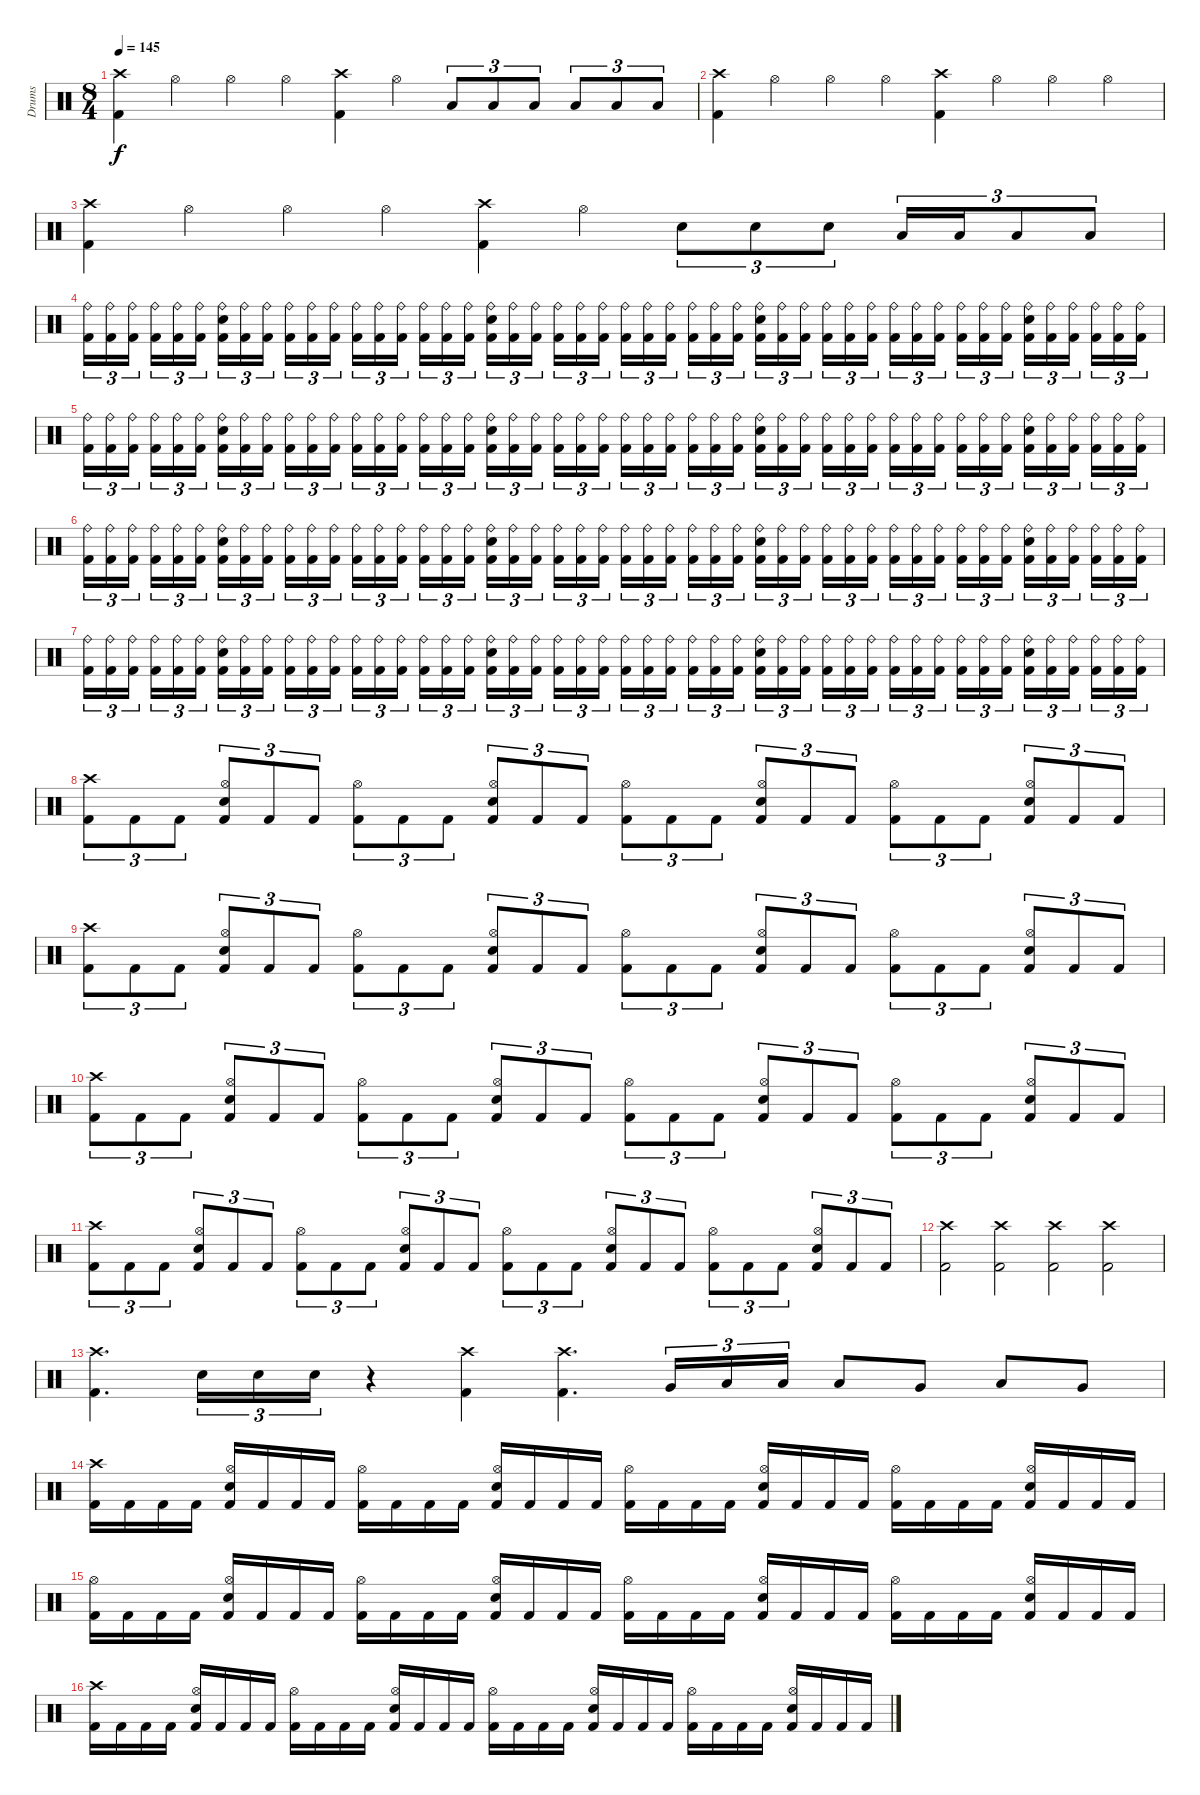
\track ("Drums" "Drums") {instrument percussion}
\staff {score}
\articulation defaults
\ts (8 4)
\tempo 145
\clef neutral
\ks c
("Crash high (hit)" "Kick (hit) 2").4{dy f} "Hi-Hat (open)".4 "Hi-Hat (open)".4 "Hi-Hat (open)".4 ("Crash high (hit)" "Kick (hit) 2").4 "Hi-Hat (open)".4 "Low Tom (hit)".8{tu (3 2)} "Low Tom (hit)".8{tu (3 2)} "Low Tom (hit)".8{tu (3 2)} "Low Floor Tom (hit)".8{tu (3 2)} "Low Floor Tom (hit)".8{tu (3 2)} "Low Floor Tom (hit)".8{tu (3 2)} |
("Crash high (hit)" "Kick (hit) 2").4 "Hi-Hat (open)".4 "Hi-Hat (open)".4 "Hi-Hat (open)".4 ("Crash high (hit)" "Kick (hit) 2").4 "Hi-Hat (open)".4 "Hi-Hat (open)".4 "Hi-Hat (open)".4 |
("Crash high (hit)" "Kick (hit) 2").4 "Hi-Hat (open)".4 "Hi-Hat (open)".4 "Hi-Hat (open)".4 ("Crash high (hit)" "Kick (hit) 2").4 "Hi-Hat (open)".4 "Electric Snare (hit)".8{tu (3 2)} "Electric Snare (hit)".8{tu (3 2)} "Electric Snare (hit)".8{tu (3 2)} "Low Tom (hit)".16{tu (3 2)} "Low Tom (hit)".16{tu (3 2)} "Low Tom (hit)".8{tu (3 2)} "Low Floor Tom (hit)".8{tu (3 2)} |
("Ride (bell)" "Kick (hit) 2").16{tu (3 2)} ("Ride (bell)" "Kick (hit) 2").16{tu (3 2)} ("Ride (bell)" "Kick (hit) 2").16{tu (3 2) beam splitsecondary} ("Ride (bell)" "Kick (hit) 2").16{tu (3 2)} ("Ride (bell)" "Kick (hit) 2").16{tu (3 2)} ("Ride (bell)" "Kick (hit) 2").16{tu (3 2)} ("Ride (bell)" "Electric Snare (hit)" "Kick (hit) 2").16{tu (3 2)} ("Ride (bell)" "Kick (hit) 2").16{tu (3 2)} ("Ride (bell)" "Kick (hit) 2").16{tu (3 2) beam splitsecondary} ("Ride (bell)" "Kick (hit) 2").16{tu (3 2)} ("Ride (bell)" "Kick (hit) 2").16{tu (3 2)} ("Ride (bell)" "Kick (hit) 2").16{tu (3 2)} ("Ride (bell)" "Kick (hit) 2").16{tu (3 2)} ("Ride (bell)" "Kick (hit) 2").16{tu (3 2)} ("Ride (bell)" "Kick (hit) 2").16{tu (3 2) beam splitsecondary} ("Ride (bell)" "Kick (hit) 2").16{tu (3 2)} ("Ride (bell)" "Kick (hit) 2").16{tu (3 2)} ("Ride (bell)" "Kick (hit) 2").16{tu (3 2)} ("Ride (bell)" "Electric Snare (hit)" "Kick (hit) 2").16{tu (3 2)} ("Ride (bell)" "Kick (hit) 2").16{tu (3 2)} ("Ride (bell)" "Kick (hit) 2").16{tu (3 2) beam splitsecondary} ("Ride (bell)" "Kick (hit) 2").16{tu (3 2)} ("Ride (bell)" "Kick (hit) 2").16{tu (3 2)} ("Ride (bell)" "Kick (hit) 2").16{tu (3 2)} ("Ride (bell)" "Kick (hit) 2").16{tu (3 2)} ("Ride (bell)" "Kick (hit) 2").16{tu (3 2)} ("Ride (bell)" "Kick (hit) 2").16{tu (3 2) beam splitsecondary} ("Ride (bell)" "Kick (hit) 2").16{tu (3 2)} ("Ride (bell)" "Kick (hit) 2").16{tu (3 2)} ("Ride (bell)" "Kick (hit) 2").16{tu (3 2)} ("Ride (bell)" "Electric Snare (hit)" "Kick (hit) 2").16{tu (3 2)} ("Ride (bell)" "Kick (hit) 2").16{tu (3 2)} ("Ride (bell)" "Kick (hit) 2").16{tu (3 2) beam splitsecondary} ("Ride (bell)" "Kick (hit) 2").16{tu (3 2)} ("Ride (bell)" "Kick (hit) 2").16{tu (3 2)} ("Ride (bell)" "Kick (hit) 2").16{tu (3 2)} ("Ride (bell)" "Kick (hit) 2").16{tu (3 2)} ("Ride (bell)" "Kick (hit) 2").16{tu (3 2)} ("Ride (bell)" "Kick (hit) 2").16{tu (3 2) beam splitsecondary} ("Ride (bell)" "Kick (hit) 2").16{tu (3 2)} ("Ride (bell)" "Kick (hit) 2").16{tu (3 2)} ("Ride (bell)" "Kick (hit) 2").16{tu (3 2)} ("Ride (bell)" "Electric Snare (hit)" "Kick (hit) 2").16{tu (3 2)} ("Ride (bell)" "Kick (hit) 2").16{tu (3 2)} ("Ride (bell)" "Kick (hit) 2").16{tu (3 2) beam splitsecondary} ("Ride (bell)" "Kick (hit) 2").16{tu (3 2)} ("Ride (bell)" "Kick (hit) 2").16{tu (3 2)} ("Ride (bell)" "Kick (hit) 2").16{tu (3 2)} |
("Ride (bell)" "Kick (hit) 2").16{tu (3 2)} ("Ride (bell)" "Kick (hit) 2").16{tu (3 2)} ("Ride (bell)" "Kick (hit) 2").16{tu (3 2) beam splitsecondary} ("Ride (bell)" "Kick (hit) 2").16{tu (3 2)} ("Ride (bell)" "Kick (hit) 2").16{tu (3 2)} ("Ride (bell)" "Kick (hit) 2").16{tu (3 2)} ("Ride (bell)" "Electric Snare (hit)" "Kick (hit) 2").16{tu (3 2)} ("Ride (bell)" "Kick (hit) 2").16{tu (3 2)} ("Ride (bell)" "Kick (hit) 2").16{tu (3 2) beam splitsecondary} ("Ride (bell)" "Kick (hit) 2").16{tu (3 2)} ("Ride (bell)" "Kick (hit) 2").16{tu (3 2)} ("Ride (bell)" "Kick (hit) 2").16{tu (3 2)} ("Ride (bell)" "Kick (hit) 2").16{tu (3 2)} ("Ride (bell)" "Kick (hit) 2").16{tu (3 2)} ("Ride (bell)" "Kick (hit) 2").16{tu (3 2) beam splitsecondary} ("Ride (bell)" "Kick (hit) 2").16{tu (3 2)} ("Ride (bell)" "Kick (hit) 2").16{tu (3 2)} ("Ride (bell)" "Kick (hit) 2").16{tu (3 2)} ("Ride (bell)" "Electric Snare (hit)" "Kick (hit) 2").16{tu (3 2)} ("Ride (bell)" "Kick (hit) 2").16{tu (3 2)} ("Ride (bell)" "Kick (hit) 2").16{tu (3 2) beam splitsecondary} ("Ride (bell)" "Kick (hit) 2").16{tu (3 2)} ("Ride (bell)" "Kick (hit) 2").16{tu (3 2)} ("Ride (bell)" "Kick (hit) 2").16{tu (3 2)} ("Ride (bell)" "Kick (hit) 2").16{tu (3 2)} ("Ride (bell)" "Kick (hit) 2").16{tu (3 2)} ("Ride (bell)" "Kick (hit) 2").16{tu (3 2) beam splitsecondary} ("Ride (bell)" "Kick (hit) 2").16{tu (3 2)} ("Ride (bell)" "Kick (hit) 2").16{tu (3 2)} ("Ride (bell)" "Kick (hit) 2").16{tu (3 2)} ("Ride (bell)" "Electric Snare (hit)" "Kick (hit) 2").16{tu (3 2)} ("Ride (bell)" "Kick (hit) 2").16{tu (3 2)} ("Ride (bell)" "Kick (hit) 2").16{tu (3 2) beam splitsecondary} ("Ride (bell)" "Kick (hit) 2").16{tu (3 2)} ("Ride (bell)" "Kick (hit) 2").16{tu (3 2)} ("Ride (bell)" "Kick (hit) 2").16{tu (3 2)} ("Ride (bell)" "Kick (hit) 2").16{tu (3 2)} ("Ride (bell)" "Kick (hit) 2").16{tu (3 2)} ("Ride (bell)" "Kick (hit) 2").16{tu (3 2) beam splitsecondary} ("Ride (bell)" "Kick (hit) 2").16{tu (3 2)} ("Ride (bell)" "Kick (hit) 2").16{tu (3 2)} ("Ride (bell)" "Kick (hit) 2").16{tu (3 2)} ("Ride (bell)" "Electric Snare (hit)" "Kick (hit) 2").16{tu (3 2)} ("Ride (bell)" "Kick (hit) 2").16{tu (3 2)} ("Ride (bell)" "Kick (hit) 2").16{tu (3 2) beam splitsecondary} ("Ride (bell)" "Kick (hit) 2").16{tu (3 2)} ("Ride (bell)" "Kick (hit) 2").16{tu (3 2)} ("Ride (bell)" "Kick (hit) 2").16{tu (3 2)} |
("Ride (bell)" "Kick (hit) 2").16{tu (3 2)} ("Ride (bell)" "Kick (hit) 2").16{tu (3 2)} ("Ride (bell)" "Kick (hit) 2").16{tu (3 2) beam splitsecondary} ("Ride (bell)" "Kick (hit) 2").16{tu (3 2)} ("Ride (bell)" "Kick (hit) 2").16{tu (3 2)} ("Ride (bell)" "Kick (hit) 2").16{tu (3 2)} ("Ride (bell)" "Electric Snare (hit)" "Kick (hit) 2").16{tu (3 2)} ("Ride (bell)" "Kick (hit) 2").16{tu (3 2)} ("Ride (bell)" "Kick (hit) 2").16{tu (3 2) beam splitsecondary} ("Ride (bell)" "Kick (hit) 2").16{tu (3 2)} ("Ride (bell)" "Kick (hit) 2").16{tu (3 2)} ("Ride (bell)" "Kick (hit) 2").16{tu (3 2)} ("Ride (bell)" "Kick (hit) 2").16{tu (3 2)} ("Ride (bell)" "Kick (hit) 2").16{tu (3 2)} ("Ride (bell)" "Kick (hit) 2").16{tu (3 2) beam splitsecondary} ("Ride (bell)" "Kick (hit) 2").16{tu (3 2)} ("Ride (bell)" "Kick (hit) 2").16{tu (3 2)} ("Ride (bell)" "Kick (hit) 2").16{tu (3 2)} ("Ride (bell)" "Electric Snare (hit)" "Kick (hit) 2").16{tu (3 2)} ("Ride (bell)" "Kick (hit) 2").16{tu (3 2)} ("Ride (bell)" "Kick (hit) 2").16{tu (3 2) beam splitsecondary} ("Ride (bell)" "Kick (hit) 2").16{tu (3 2)} ("Ride (bell)" "Kick (hit) 2").16{tu (3 2)} ("Ride (bell)" "Kick (hit) 2").16{tu (3 2)} ("Ride (bell)" "Kick (hit) 2").16{tu (3 2)} ("Ride (bell)" "Kick (hit) 2").16{tu (3 2)} ("Ride (bell)" "Kick (hit) 2").16{tu (3 2) beam splitsecondary} ("Ride (bell)" "Kick (hit) 2").16{tu (3 2)} ("Ride (bell)" "Kick (hit) 2").16{tu (3 2)} ("Ride (bell)" "Kick (hit) 2").16{tu (3 2)} ("Ride (bell)" "Electric Snare (hit)" "Kick (hit) 2").16{tu (3 2)} ("Ride (bell)" "Kick (hit) 2").16{tu (3 2)} ("Ride (bell)" "Kick (hit) 2").16{tu (3 2) beam splitsecondary} ("Ride (bell)" "Kick (hit) 2").16{tu (3 2)} ("Ride (bell)" "Kick (hit) 2").16{tu (3 2)} ("Ride (bell)" "Kick (hit) 2").16{tu (3 2)} ("Ride (bell)" "Kick (hit) 2").16{tu (3 2)} ("Ride (bell)" "Kick (hit) 2").16{tu (3 2)} ("Ride (bell)" "Kick (hit) 2").16{tu (3 2) beam splitsecondary} ("Ride (bell)" "Kick (hit) 2").16{tu (3 2)} ("Ride (bell)" "Kick (hit) 2").16{tu (3 2)} ("Ride (bell)" "Kick (hit) 2").16{tu (3 2)} ("Ride (bell)" "Electric Snare (hit)" "Kick (hit) 2").16{tu (3 2)} ("Ride (bell)" "Kick (hit) 2").16{tu (3 2)} ("Ride (bell)" "Kick (hit) 2").16{tu (3 2) beam splitsecondary} ("Ride (bell)" "Kick (hit) 2").16{tu (3 2)} ("Ride (bell)" "Kick (hit) 2").16{tu (3 2)} ("Ride (bell)" "Kick (hit) 2").16{tu (3 2)} |
("Ride (bell)" "Kick (hit) 2").16{tu (3 2)} ("Ride (bell)" "Kick (hit) 2").16{tu (3 2)} ("Ride (bell)" "Kick (hit) 2").16{tu (3 2) beam splitsecondary} ("Ride (bell)" "Kick (hit) 2").16{tu (3 2)} ("Ride (bell)" "Kick (hit) 2").16{tu (3 2)} ("Ride (bell)" "Kick (hit) 2").16{tu (3 2)} ("Ride (bell)" "Electric Snare (hit)" "Kick (hit) 2").16{tu (3 2)} ("Ride (bell)" "Kick (hit) 2").16{tu (3 2)} ("Ride (bell)" "Kick (hit) 2").16{tu (3 2) beam splitsecondary} ("Ride (bell)" "Kick (hit) 2").16{tu (3 2)} ("Ride (bell)" "Kick (hit) 2").16{tu (3 2)} ("Ride (bell)" "Kick (hit) 2").16{tu (3 2)} ("Ride (bell)" "Kick (hit) 2").16{tu (3 2)} ("Ride (bell)" "Kick (hit) 2").16{tu (3 2)} ("Ride (bell)" "Kick (hit) 2").16{tu (3 2) beam splitsecondary} ("Ride (bell)" "Kick (hit) 2").16{tu (3 2)} ("Ride (bell)" "Kick (hit) 2").16{tu (3 2)} ("Ride (bell)" "Kick (hit) 2").16{tu (3 2)} ("Ride (bell)" "Electric Snare (hit)" "Kick (hit) 2").16{tu (3 2)} ("Ride (bell)" "Kick (hit) 2").16{tu (3 2)} ("Ride (bell)" "Kick (hit) 2").16{tu (3 2) beam splitsecondary} ("Ride (bell)" "Kick (hit) 2").16{tu (3 2)} ("Ride (bell)" "Kick (hit) 2").16{tu (3 2)} ("Ride (bell)" "Kick (hit) 2").16{tu (3 2)} ("Ride (bell)" "Kick (hit) 2").16{tu (3 2)} ("Ride (bell)" "Kick (hit) 2").16{tu (3 2)} ("Ride (bell)" "Kick (hit) 2").16{tu (3 2) beam splitsecondary} ("Ride (bell)" "Kick (hit) 2").16{tu (3 2)} ("Ride (bell)" "Kick (hit) 2").16{tu (3 2)} ("Ride (bell)" "Kick (hit) 2").16{tu (3 2)} ("Ride (bell)" "Electric Snare (hit)" "Kick (hit) 2").16{tu (3 2)} ("Ride (bell)" "Kick (hit) 2").16{tu (3 2)} ("Ride (bell)" "Kick (hit) 2").16{tu (3 2) beam splitsecondary} ("Ride (bell)" "Kick (hit) 2").16{tu (3 2)} ("Ride (bell)" "Kick (hit) 2").16{tu (3 2)} ("Ride (bell)" "Kick (hit) 2").16{tu (3 2)} ("Ride (bell)" "Kick (hit) 2").16{tu (3 2)} ("Ride (bell)" "Kick (hit) 2").16{tu (3 2)} ("Ride (bell)" "Kick (hit) 2").16{tu (3 2) beam splitsecondary} ("Ride (bell)" "Kick (hit) 2").16{tu (3 2)} ("Ride (bell)" "Kick (hit) 2").16{tu (3 2)} ("Ride (bell)" "Kick (hit) 2").16{tu (3 2)} ("Ride (bell)" "Electric Snare (hit)" "Kick (hit) 2").16{tu (3 2)} ("Ride (bell)" "Kick (hit) 2").16{tu (3 2)} ("Ride (bell)" "Kick (hit) 2").16{tu (3 2) beam splitsecondary} ("Ride (bell)" "Kick (hit) 2").16{tu (3 2)} ("Ride (bell)" "Kick (hit) 2").16{tu (3 2)} ("Ride (bell)" "Kick (hit) 2").16{tu (3 2)} |
("Crash high (hit)" "Kick (hit) 2").8{tu (3 2)} "Kick (hit) 2".8{tu (3 2)} "Kick (hit) 2".8{tu (3 2)} ("Hi-Hat (open)" "Electric Snare (hit)" "Kick (hit) 2").8{tu (3 2)} "Kick (hit) 2".8{tu (3 2)} "Kick (hit) 2".8{tu (3 2)} ("Hi-Hat (open)" "Kick (hit) 2").8{tu (3 2)} "Kick (hit) 2".8{tu (3 2)} "Kick (hit) 2".8{tu (3 2)} ("Hi-Hat (open)" "Electric Snare (hit)" "Kick (hit) 2").8{tu (3 2)} "Kick (hit) 2".8{tu (3 2)} "Kick (hit) 2".8{tu (3 2)} ("Hi-Hat (open)" "Kick (hit) 2").8{tu (3 2)} "Kick (hit) 2".8{tu (3 2)} "Kick (hit) 2".8{tu (3 2)} ("Hi-Hat (open)" "Electric Snare (hit)" "Kick (hit) 2").8{tu (3 2)} "Kick (hit) 2".8{tu (3 2)} "Kick (hit) 2".8{tu (3 2)} ("Hi-Hat (open)" "Kick (hit) 2").8{tu (3 2)} "Kick (hit) 2".8{tu (3 2)} "Kick (hit) 2".8{tu (3 2)} ("Hi-Hat (open)" "Electric Snare (hit)" "Kick (hit) 2").8{tu (3 2)} "Kick (hit) 2".8{tu (3 2)} "Kick (hit) 2".8{tu (3 2)} |
("Crash high (hit)" "Kick (hit) 2").8{tu (3 2)} "Kick (hit) 2".8{tu (3 2)} "Kick (hit) 2".8{tu (3 2)} ("Hi-Hat (open)" "Electric Snare (hit)" "Kick (hit) 2").8{tu (3 2)} "Kick (hit) 2".8{tu (3 2)} "Kick (hit) 2".8{tu (3 2)} ("Hi-Hat (open)" "Kick (hit) 2").8{tu (3 2)} "Kick (hit) 2".8{tu (3 2)} "Kick (hit) 2".8{tu (3 2)} ("Hi-Hat (open)" "Electric Snare (hit)" "Kick (hit) 2").8{tu (3 2)} "Kick (hit) 2".8{tu (3 2)} "Kick (hit) 2".8{tu (3 2)} ("Hi-Hat (open)" "Kick (hit) 2").8{tu (3 2)} "Kick (hit) 2".8{tu (3 2)} "Kick (hit) 2".8{tu (3 2)} ("Hi-Hat (open)" "Electric Snare (hit)" "Kick (hit) 2").8{tu (3 2)} "Kick (hit) 2".8{tu (3 2)} "Kick (hit) 2".8{tu (3 2)} ("Hi-Hat (open)" "Kick (hit) 2").8{tu (3 2)} "Kick (hit) 2".8{tu (3 2)} "Kick (hit) 2".8{tu (3 2)} ("Hi-Hat (open)" "Electric Snare (hit)" "Kick (hit) 2").8{tu (3 2)} "Kick (hit) 2".8{tu (3 2)} "Kick (hit) 2".8{tu (3 2)} |
("Crash high (hit)" "Kick (hit) 2").8{tu (3 2)} "Kick (hit) 2".8{tu (3 2)} "Kick (hit) 2".8{tu (3 2)} ("Hi-Hat (open)" "Electric Snare (hit)" "Kick (hit) 2").8{tu (3 2)} "Kick (hit) 2".8{tu (3 2)} "Kick (hit) 2".8{tu (3 2)} ("Hi-Hat (open)" "Kick (hit) 2").8{tu (3 2)} "Kick (hit) 2".8{tu (3 2)} "Kick (hit) 2".8{tu (3 2)} ("Hi-Hat (open)" "Electric Snare (hit)" "Kick (hit) 2").8{tu (3 2)} "Kick (hit) 2".8{tu (3 2)} "Kick (hit) 2".8{tu (3 2)} ("Hi-Hat (open)" "Kick (hit) 2").8{tu (3 2)} "Kick (hit) 2".8{tu (3 2)} "Kick (hit) 2".8{tu (3 2)} ("Hi-Hat (open)" "Electric Snare (hit)" "Kick (hit) 2").8{tu (3 2)} "Kick (hit) 2".8{tu (3 2)} "Kick (hit) 2".8{tu (3 2)} ("Hi-Hat (open)" "Kick (hit) 2").8{tu (3 2)} "Kick (hit) 2".8{tu (3 2)} "Kick (hit) 2".8{tu (3 2)} ("Hi-Hat (open)" "Electric Snare (hit)" "Kick (hit) 2").8{tu (3 2)} "Kick (hit) 2".8{tu (3 2)} "Kick (hit) 2".8{tu (3 2)} |
("Crash high (hit)" "Kick (hit) 2").8{tu (3 2)} "Kick (hit) 2".8{tu (3 2)} "Kick (hit) 2".8{tu (3 2)} ("Hi-Hat (open)" "Electric Snare (hit)" "Kick (hit) 2").8{tu (3 2)} "Kick (hit) 2".8{tu (3 2)} "Kick (hit) 2".8{tu (3 2)} ("Hi-Hat (open)" "Kick (hit) 2").8{tu (3 2)} "Kick (hit) 2".8{tu (3 2)} "Kick (hit) 2".8{tu (3 2)} ("Hi-Hat (open)" "Electric Snare (hit)" "Kick (hit) 2").8{tu (3 2)} "Kick (hit) 2".8{tu (3 2)} "Kick (hit) 2".8{tu (3 2)} ("Hi-Hat (open)" "Kick (hit) 2").8{tu (3 2)} "Kick (hit) 2".8{tu (3 2)} "Kick (hit) 2".8{tu (3 2)} ("Hi-Hat (open)" "Electric Snare (hit)" "Kick (hit) 2").8{tu (3 2)} "Kick (hit) 2".8{tu (3 2)} "Kick (hit) 2".8{tu (3 2)} ("Hi-Hat (open)" "Kick (hit) 2").8{tu (3 2)} "Kick (hit) 2".8{tu (3 2)} "Kick (hit) 2".8{tu (3 2)} ("Hi-Hat (open)" "Electric Snare (hit)" "Kick (hit) 2").8{tu (3 2)} "Kick (hit) 2".8{tu (3 2)} "Kick (hit) 2".8{tu (3 2)} |
("Crash high (hit)" "Kick (hit) 2").2 ("Crash high (hit)" "Kick (hit) 2").2 ("Crash high (hit)" "Kick (hit) 2").2 ("Crash high (hit)" "Kick (hit) 2").2 |
("Crash high (hit)" "Kick (hit) 2").4{d} "Electric Snare (hit)".16{tu (3 2)} "Electric Snare (hit)".16{tu (3 2)} "Electric Snare (hit)".16{tu (3 2)} r.4 ("Crash high (hit)" "Kick (hit) 2").4 ("Crash high (hit)" "Kick (hit) 2").4{d} "Very Low Tom (hit)".16{tu (3 2)} "Low Tom (hit)".16{tu (3 2)} "Low Tom (hit)".16{tu (3 2)} "Low Tom (hit)".8 "Very Low Tom (hit)".8 "Low Floor Tom (hit)".8 "Very Low Tom (hit)".8 |
("Crash high (hit)" "Kick (hit) 2").16 "Kick (hit) 2".16 "Kick (hit) 2".16 "Kick (hit) 2".16 ("Hi-Hat (open)" "Electric Snare (hit)" "Kick (hit) 2").16 "Kick (hit) 2".16 "Kick (hit) 2".16 "Kick (hit) 2".16 ("Hi-Hat (open)" "Kick (hit) 2").16 "Kick (hit) 2".16 "Kick (hit) 2".16 "Kick (hit) 2".16 ("Hi-Hat (open)" "Electric Snare (hit)" "Kick (hit) 2").16 "Kick (hit) 2".16 "Kick (hit) 2".16 "Kick (hit) 2".16 ("Hi-Hat (open)" "Kick (hit) 2").16 "Kick (hit) 2".16 "Kick (hit) 2".16 "Kick (hit) 2".16 ("Hi-Hat (open)" "Electric Snare (hit)" "Kick (hit) 2").16 "Kick (hit) 2".16 "Kick (hit) 2".16 "Kick (hit) 2".16 ("Hi-Hat (open)" "Kick (hit) 2").16 "Kick (hit) 2".16 "Kick (hit) 2".16 "Kick (hit) 2".16 ("Hi-Hat (open)" "Electric Snare (hit)" "Kick (hit) 2").16 "Kick (hit) 2".16 "Kick (hit) 2".16 "Kick (hit) 2".16 |
("Hi-Hat (open)" "Kick (hit) 2").16 "Kick (hit) 2".16 "Kick (hit) 2".16 "Kick (hit) 2".16 ("Hi-Hat (open)" "Electric Snare (hit)" "Kick (hit) 2").16 "Kick (hit) 2".16 "Kick (hit) 2".16 "Kick (hit) 2".16 ("Hi-Hat (open)" "Kick (hit) 2").16 "Kick (hit) 2".16 "Kick (hit) 2".16 "Kick (hit) 2".16 ("Hi-Hat (open)" "Electric Snare (hit)" "Kick (hit) 2").16 "Kick (hit) 2".16 "Kick (hit) 2".16 "Kick (hit) 2".16 ("Hi-Hat (open)" "Kick (hit) 2").16 "Kick (hit) 2".16 "Kick (hit) 2".16 "Kick (hit) 2".16 ("Hi-Hat (open)" "Electric Snare (hit)" "Kick (hit) 2").16 "Kick (hit) 2".16 "Kick (hit) 2".16 "Kick (hit) 2".16 ("Hi-Hat (open)" "Kick (hit) 2").16 "Kick (hit) 2".16 "Kick (hit) 2".16 "Kick (hit) 2".16 ("Hi-Hat (open)" "Electric Snare (hit)" "Kick (hit) 2").16 "Kick (hit) 2".16 "Kick (hit) 2".16 "Kick (hit) 2".16 |
("Crash high (hit)" "Kick (hit) 2").16 "Kick (hit) 2".16 "Kick (hit) 2".16 "Kick (hit) 2".16 ("Hi-Hat (open)" "Electric Snare (hit)" "Kick (hit) 2").16 "Kick (hit) 2".16 "Kick (hit) 2".16 "Kick (hit) 2".16 ("Hi-Hat (open)" "Kick (hit) 2").16 "Kick (hit) 2".16 "Kick (hit) 2".16 "Kick (hit) 2".16 ("Hi-Hat (open)" "Electric Snare (hit)" "Kick (hit) 2").16 "Kick (hit) 2".16 "Kick (hit) 2".16 "Kick (hit) 2".16 ("Hi-Hat (open)" "Kick (hit) 2").16 "Kick (hit) 2".16 "Kick (hit) 2".16 "Kick (hit) 2".16 ("Hi-Hat (open)" "Electric Snare (hit)" "Kick (hit) 2").16 "Kick (hit) 2".16 "Kick (hit) 2".16 "Kick (hit) 2".16 ("Hi-Hat (open)" "Kick (hit) 2").16 "Kick (hit) 2".16 "Kick (hit) 2".16 "Kick (hit) 2".16 ("Hi-Hat (open)" "Electric Snare (hit)" "Kick (hit) 2").16 "Kick (hit) 2".16 "Kick (hit) 2".16 "Kick (hit) 2".16
